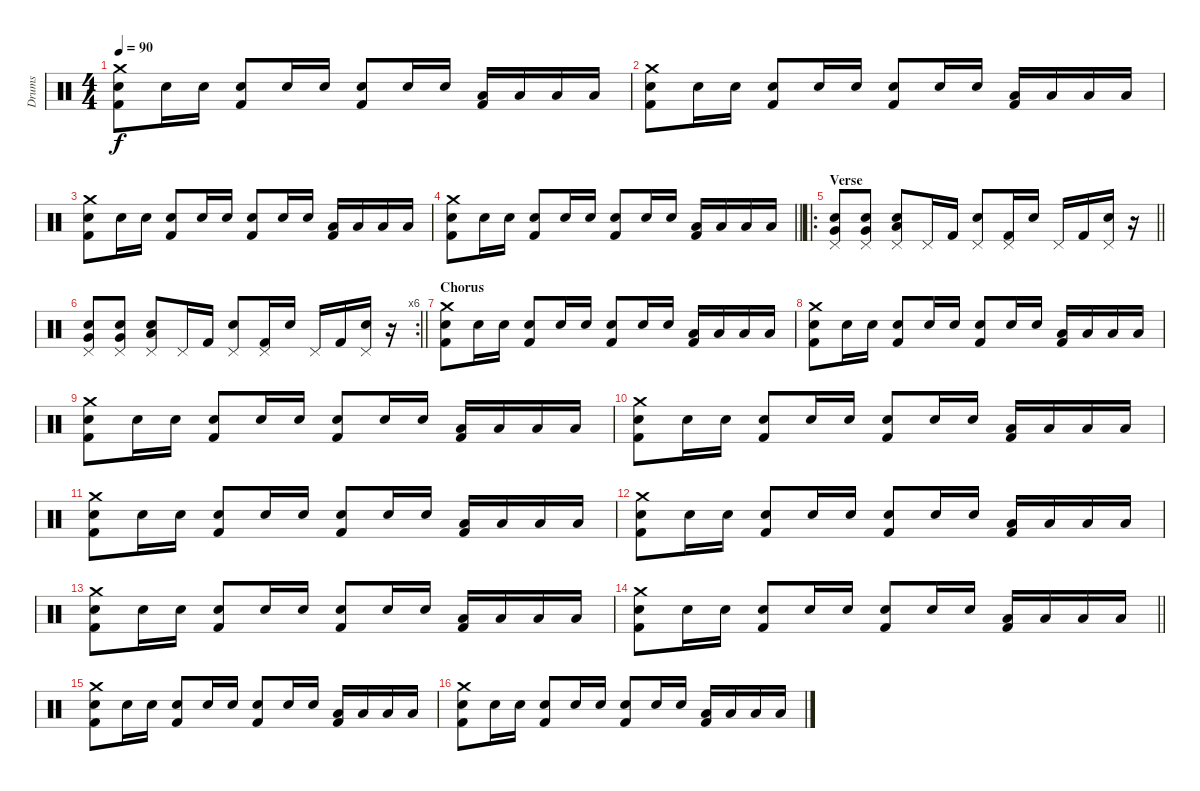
\track ("Drums" "Drums") {instrument percussion}
\staff {score}
\articulation defaults
\ts (4 4)
\tempo 90
\clef neutral
\ks c
("Kick (hit) 2" "Snare (hit) 2" "Crash medium (hit)").8{dy f} "Snare (hit) 2".16 "Snare (hit) 2".16 ("Kick (hit) 2" "Snare (hit) 2").8 "Snare (hit) 2".16 "Snare (hit) 2".16 ("Kick (hit) 2" "Snare (hit) 2").8 "Snare (hit) 2".16 "Snare (hit) 2".16 ("Kick (hit) 2" "Low Floor Tom (hit)").16 "Low Floor Tom (hit)".16 "Low Floor Tom (hit)".16 "Low Floor Tom (hit)".16 |
("Kick (hit) 2" "Snare (hit) 2" "Crash medium (hit)").8 "Snare (hit) 2".16 "Snare (hit) 2".16 ("Kick (hit) 2" "Snare (hit) 2").8 "Snare (hit) 2".16 "Snare (hit) 2".16 ("Kick (hit) 2" "Snare (hit) 2").8 "Snare (hit) 2".16 "Snare (hit) 2".16 ("Kick (hit) 2" "Low Floor Tom (hit)").16 "Low Floor Tom (hit)".16 "Low Floor Tom (hit)".16 "Low Floor Tom (hit)".16 |
("Kick (hit) 2" "Snare (hit) 2" "Crash medium (hit)").8 "Snare (hit) 2".16 "Snare (hit) 2".16 ("Kick (hit) 2" "Snare (hit) 2").8 "Snare (hit) 2".16 "Snare (hit) 2".16 ("Kick (hit) 2" "Snare (hit) 2").8 "Snare (hit) 2".16 "Snare (hit) 2".16 ("Kick (hit) 2" "Low Floor Tom (hit)").16 "Low Floor Tom (hit)".16 "Low Floor Tom (hit)".16 "Low Floor Tom (hit)".16 |
\barLineRight lightlight
("Kick (hit) 2" "Snare (hit) 2" "Crash medium (hit)").8 "Snare (hit) 2".16 "Snare (hit) 2".16 ("Kick (hit) 2" "Snare (hit) 2").8 "Snare (hit) 2".16 "Snare (hit) 2".16 ("Kick (hit) 2" "Snare (hit) 2").8 "Snare (hit) 2".16 "Snare (hit) 2".16 ("Kick (hit) 2" "Low Floor Tom (hit)").16 "Low Floor Tom (hit)".16 "Low Floor Tom (hit)".16 "Low Floor Tom (hit)".16 |
\ro
\section ("" "Verse")
\barLineRight lightlight
("Very Low Tom (hit)" "Snare (hit) 2" "Pedal Hi-Hat (hit)").8 ("Very Low Tom (hit)" "Snare (hit) 2" "Pedal Hi-Hat (hit)").8 ("Low Floor Tom (hit)" "Snare (hit) 2" "Pedal Hi-Hat (hit)").8 "Pedal Hi-Hat (hit)".16 "Kick (hit) 2".16 ("Snare (hit) 2" "Pedal Hi-Hat (hit)").8 ("Kick (hit) 2" "Pedal Hi-Hat (hit)").16 "Snare (hit) 2".16 "Pedal Hi-Hat (hit)".16 "Kick (hit) 2".16 ("Snare (hit) 2" "Pedal Hi-Hat (hit)").16 r.16 |
\rc 6
\barLineRight lightlight
("Very Low Tom (hit)" "Snare (hit) 2" "Pedal Hi-Hat (hit)").8 ("Very Low Tom (hit)" "Snare (hit) 2" "Pedal Hi-Hat (hit)").8 ("Low Floor Tom (hit)" "Snare (hit) 2" "Pedal Hi-Hat (hit)").8 "Pedal Hi-Hat (hit)".16 "Kick (hit) 2".16 ("Snare (hit) 2" "Pedal Hi-Hat (hit)").8 ("Kick (hit) 2" "Pedal Hi-Hat (hit)").16 "Snare (hit) 2".16 "Pedal Hi-Hat (hit)".16 "Kick (hit) 2".16 ("Snare (hit) 2" "Pedal Hi-Hat (hit)").16 r.16 |
\section ("" "Chorus")
("Kick (hit) 2" "Snare (hit) 2" "Crash medium (hit)").8 "Snare (hit) 2".16 "Snare (hit) 2".16 ("Kick (hit) 2" "Snare (hit) 2").8 "Snare (hit) 2".16 "Snare (hit) 2".16 ("Kick (hit) 2" "Snare (hit) 2").8 "Snare (hit) 2".16 "Snare (hit) 2".16 ("Kick (hit) 2" "Low Floor Tom (hit)").16 "Low Floor Tom (hit)".16 "Low Floor Tom (hit)".16 "Low Floor Tom (hit)".16 |
("Kick (hit) 2" "Snare (hit) 2" "Crash medium (hit)").8 "Snare (hit) 2".16 "Snare (hit) 2".16 ("Kick (hit) 2" "Snare (hit) 2").8 "Snare (hit) 2".16 "Snare (hit) 2".16 ("Kick (hit) 2" "Snare (hit) 2").8 "Snare (hit) 2".16 "Snare (hit) 2".16 ("Kick (hit) 2" "Low Floor Tom (hit)").16 "Low Floor Tom (hit)".16 "Low Floor Tom (hit)".16 "Low Floor Tom (hit)".16 |
("Kick (hit) 2" "Snare (hit) 2" "Crash medium (hit)").8 "Snare (hit) 2".16 "Snare (hit) 2".16 ("Kick (hit) 2" "Snare (hit) 2").8 "Snare (hit) 2".16 "Snare (hit) 2".16 ("Kick (hit) 2" "Snare (hit) 2").8 "Snare (hit) 2".16 "Snare (hit) 2".16 ("Kick (hit) 2" "Low Floor Tom (hit)").16 "Low Floor Tom (hit)".16 "Low Floor Tom (hit)".16 "Low Floor Tom (hit)".16 |
("Kick (hit) 2" "Snare (hit) 2" "Crash medium (hit)").8 "Snare (hit) 2".16 "Snare (hit) 2".16 ("Kick (hit) 2" "Snare (hit) 2").8 "Snare (hit) 2".16 "Snare (hit) 2".16 ("Kick (hit) 2" "Snare (hit) 2").8 "Snare (hit) 2".16 "Snare (hit) 2".16 ("Kick (hit) 2" "Low Floor Tom (hit)").16 "Low Floor Tom (hit)".16 "Low Floor Tom (hit)".16 "Low Floor Tom (hit)".16 |
("Kick (hit) 2" "Snare (hit) 2" "Crash medium (hit)").8 "Snare (hit) 2".16 "Snare (hit) 2".16 ("Kick (hit) 2" "Snare (hit) 2").8 "Snare (hit) 2".16 "Snare (hit) 2".16 ("Kick (hit) 2" "Snare (hit) 2").8 "Snare (hit) 2".16 "Snare (hit) 2".16 ("Kick (hit) 2" "Low Floor Tom (hit)").16 "Low Floor Tom (hit)".16 "Low Floor Tom (hit)".16 "Low Floor Tom (hit)".16 |
("Kick (hit) 2" "Snare (hit) 2" "Crash medium (hit)").8 "Snare (hit) 2".16 "Snare (hit) 2".16 ("Kick (hit) 2" "Snare (hit) 2").8 "Snare (hit) 2".16 "Snare (hit) 2".16 ("Kick (hit) 2" "Snare (hit) 2").8 "Snare (hit) 2".16 "Snare (hit) 2".16 ("Kick (hit) 2" "Low Floor Tom (hit)").16 "Low Floor Tom (hit)".16 "Low Floor Tom (hit)".16 "Low Floor Tom (hit)".16 |
("Kick (hit) 2" "Snare (hit) 2" "Crash medium (hit)").8 "Snare (hit) 2".16 "Snare (hit) 2".16 ("Kick (hit) 2" "Snare (hit) 2").8 "Snare (hit) 2".16 "Snare (hit) 2".16 ("Kick (hit) 2" "Snare (hit) 2").8 "Snare (hit) 2".16 "Snare (hit) 2".16 ("Kick (hit) 2" "Low Floor Tom (hit)").16 "Low Floor Tom (hit)".16 "Low Floor Tom (hit)".16 "Low Floor Tom (hit)".16 |
\barLineRight lightlight
("Kick (hit) 2" "Snare (hit) 2" "Crash medium (hit)").8 "Snare (hit) 2".16 "Snare (hit) 2".16 ("Kick (hit) 2" "Snare (hit) 2").8 "Snare (hit) 2".16 "Snare (hit) 2".16 ("Kick (hit) 2" "Snare (hit) 2").8 "Snare (hit) 2".16 "Snare (hit) 2".16 ("Kick (hit) 2" "Low Floor Tom (hit)").16 "Low Floor Tom (hit)".16 "Low Floor Tom (hit)".16 "Low Floor Tom (hit)".16 |
("Kick (hit) 2" "Snare (hit) 2" "Crash medium (hit)").8 "Snare (hit) 2".16 "Snare (hit) 2".16 ("Kick (hit) 2" "Snare (hit) 2").8 "Snare (hit) 2".16 "Snare (hit) 2".16 ("Kick (hit) 2" "Snare (hit) 2").8 "Snare (hit) 2".16 "Snare (hit) 2".16 ("Kick (hit) 2" "Low Floor Tom (hit)").16 "Low Floor Tom (hit)".16 "Low Floor Tom (hit)".16 "Low Floor Tom (hit)".16 |
("Kick (hit) 2" "Snare (hit) 2" "Crash medium (hit)").8 "Snare (hit) 2".16 "Snare (hit) 2".16 ("Kick (hit) 2" "Snare (hit) 2").8 "Snare (hit) 2".16 "Snare (hit) 2".16 ("Kick (hit) 2" "Snare (hit) 2").8 "Snare (hit) 2".16 "Snare (hit) 2".16 ("Kick (hit) 2" "Low Floor Tom (hit)").16 "Low Floor Tom (hit)".16 "Low Floor Tom (hit)".16 "Low Floor Tom (hit)".16
